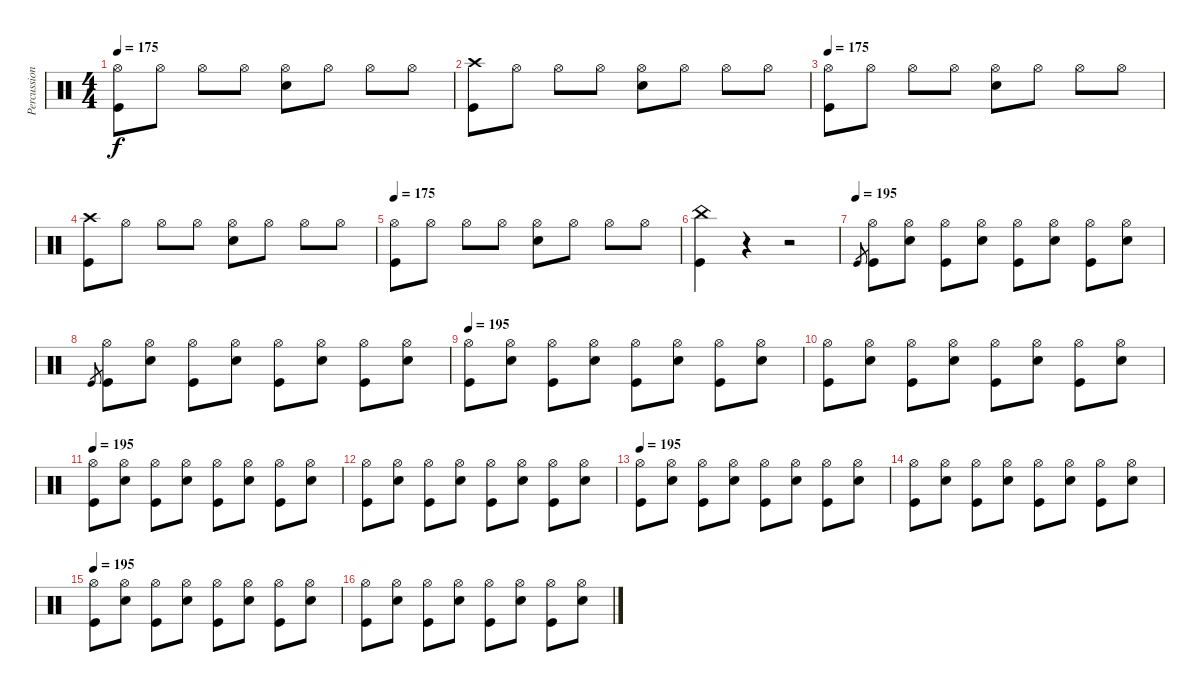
\track ("Percussion" "Percussion") {instrument percussion}
\staff {score}
\articulation defaults
\ts (4 4)
\tempo 175
\clef neutral
\ks c
("Hi-Hat (open)" "Kick (hit)").8{dy f} "Hi-Hat (open)".8 "Hi-Hat (open)".8 "Hi-Hat (open)".8 ("Hi-Hat (open)" "Electric Snare (hit)").8 "Hi-Hat (open)".8 "Hi-Hat (open)".8 "Hi-Hat (open)".8 |
("Crash high (hit)" "Kick (hit)").8 "Hi-Hat (open)".8 "Hi-Hat (open)".8 "Hi-Hat (open)".8 ("Hi-Hat (open)" "Electric Snare (hit)").8 "Hi-Hat (open)".8 "Hi-Hat (open)".8 "Hi-Hat (open)".8 |
\tempo 175
("Hi-Hat (open)" "Kick (hit)").8 "Hi-Hat (open)".8 "Hi-Hat (open)".8 "Hi-Hat (open)".8 ("Hi-Hat (open)" "Electric Snare (hit)").8 "Hi-Hat (open)".8 "Hi-Hat (open)".8 "Hi-Hat (open)".8 |
("Crash high (hit)" "Kick (hit)").8 "Hi-Hat (open)".8 "Hi-Hat (open)".8 "Hi-Hat (open)".8 ("Hi-Hat (open)" "Electric Snare (hit)").8 "Hi-Hat (open)".8 "Hi-Hat (open)".8 "Hi-Hat (open)".8 |
\tempo 175
("Hi-Hat (open)" "Kick (hit)").8 "Hi-Hat (open)".8 "Hi-Hat (open)".8 "Hi-Hat (open)".8 ("Hi-Hat (open)" "Electric Snare (hit)").8 "Hi-Hat (open)".8 "Hi-Hat (open)".8 "Hi-Hat (open)".8 |
("China (hit)" "Kick (hit)").4 r.4 r.2 |
\tempo (195)
"Kick (hit)".8{gr} ("Hi-Hat (open)" "Kick (hit)").8 ("Hi-Hat (open)" "Electric Snare (hit)").8 ("Hi-Hat (open)" "Kick (hit)").8 ("Hi-Hat (open)" "Electric Snare (hit)").8 ("Hi-Hat (open)" "Kick (hit)").8 ("Hi-Hat (open)" "Electric Snare (hit)").8 ("Hi-Hat (open)" "Kick (hit)").8 ("Hi-Hat (open)" "Electric Snare (hit)").8 |
"Kick (hit)".8{gr} ("Hi-Hat (open)" "Kick (hit)").8 ("Hi-Hat (open)" "Electric Snare (hit)").8 ("Hi-Hat (open)" "Kick (hit)").8 ("Hi-Hat (open)" "Electric Snare (hit)").8 ("Hi-Hat (open)" "Kick (hit)").8 ("Hi-Hat (open)" "Electric Snare (hit)").8 ("Hi-Hat (open)" "Kick (hit)").8 ("Hi-Hat (open)" "Electric Snare (hit)").8 |
\tempo 195
("Hi-Hat (open)" "Kick (hit)").8 ("Hi-Hat (open)" "Electric Snare (hit)").8 ("Hi-Hat (open)" "Kick (hit)").8 ("Hi-Hat (open)" "Electric Snare (hit)").8 ("Hi-Hat (open)" "Kick (hit)").8 ("Hi-Hat (open)" "Electric Snare (hit)").8 ("Hi-Hat (open)" "Kick (hit)").8 ("Hi-Hat (open)" "Electric Snare (hit)").8 |
("Hi-Hat (open)" "Kick (hit)").8 ("Hi-Hat (open)" "Electric Snare (hit)").8 ("Hi-Hat (open)" "Kick (hit)").8 ("Hi-Hat (open)" "Electric Snare (hit)").8 ("Hi-Hat (open)" "Kick (hit)").8 ("Hi-Hat (open)" "Electric Snare (hit)").8 ("Hi-Hat (open)" "Kick (hit)").8 ("Hi-Hat (open)" "Electric Snare (hit)").8 |
\tempo 195
("Hi-Hat (open)" "Kick (hit)").8 ("Hi-Hat (open)" "Electric Snare (hit)").8 ("Hi-Hat (open)" "Kick (hit)").8 ("Hi-Hat (open)" "Electric Snare (hit)").8 ("Hi-Hat (open)" "Kick (hit)").8 ("Hi-Hat (open)" "Electric Snare (hit)").8 ("Hi-Hat (open)" "Kick (hit)").8 ("Hi-Hat (open)" "Electric Snare (hit)").8 |
("Hi-Hat (open)" "Kick (hit)").8 ("Hi-Hat (open)" "Electric Snare (hit)").8 ("Hi-Hat (open)" "Kick (hit)").8 ("Hi-Hat (open)" "Electric Snare (hit)").8 ("Hi-Hat (open)" "Kick (hit)").8 ("Hi-Hat (open)" "Electric Snare (hit)").8 ("Hi-Hat (open)" "Kick (hit)").8 ("Hi-Hat (open)" "Electric Snare (hit)").8 |
\tempo 195
("Hi-Hat (open)" "Kick (hit)").8 ("Hi-Hat (open)" "Electric Snare (hit)").8 ("Hi-Hat (open)" "Kick (hit)").8 ("Hi-Hat (open)" "Electric Snare (hit)").8 ("Hi-Hat (open)" "Kick (hit)").8 ("Hi-Hat (open)" "Electric Snare (hit)").8 ("Hi-Hat (open)" "Kick (hit)").8 ("Hi-Hat (open)" "Electric Snare (hit)").8 |
("Hi-Hat (open)" "Kick (hit)").8 ("Hi-Hat (open)" "Electric Snare (hit)").8 ("Hi-Hat (open)" "Kick (hit)").8 ("Hi-Hat (open)" "Electric Snare (hit)").8 ("Hi-Hat (open)" "Kick (hit)").8 ("Hi-Hat (open)" "Electric Snare (hit)").8 ("Hi-Hat (open)" "Kick (hit)").8 ("Hi-Hat (open)" "Electric Snare (hit)").8 |
\tempo 195
("Hi-Hat (open)" "Kick (hit)").8 ("Hi-Hat (open)" "Electric Snare (hit)").8 ("Hi-Hat (open)" "Kick (hit)").8 ("Hi-Hat (open)" "Electric Snare (hit)").8 ("Hi-Hat (open)" "Kick (hit)").8 ("Hi-Hat (open)" "Electric Snare (hit)").8 ("Hi-Hat (open)" "Kick (hit)").8 ("Hi-Hat (open)" "Electric Snare (hit)").8 |
("Hi-Hat (open)" "Kick (hit)").8 ("Hi-Hat (open)" "Electric Snare (hit)").8 ("Hi-Hat (open)" "Kick (hit)").8 ("Hi-Hat (open)" "Electric Snare (hit)").8 ("Hi-Hat (open)" "Kick (hit)").8 ("Hi-Hat (open)" "Electric Snare (hit)").8 ("Hi-Hat (open)" "Kick (hit)").8 ("Hi-Hat (open)" "Electric Snare (hit)").8
